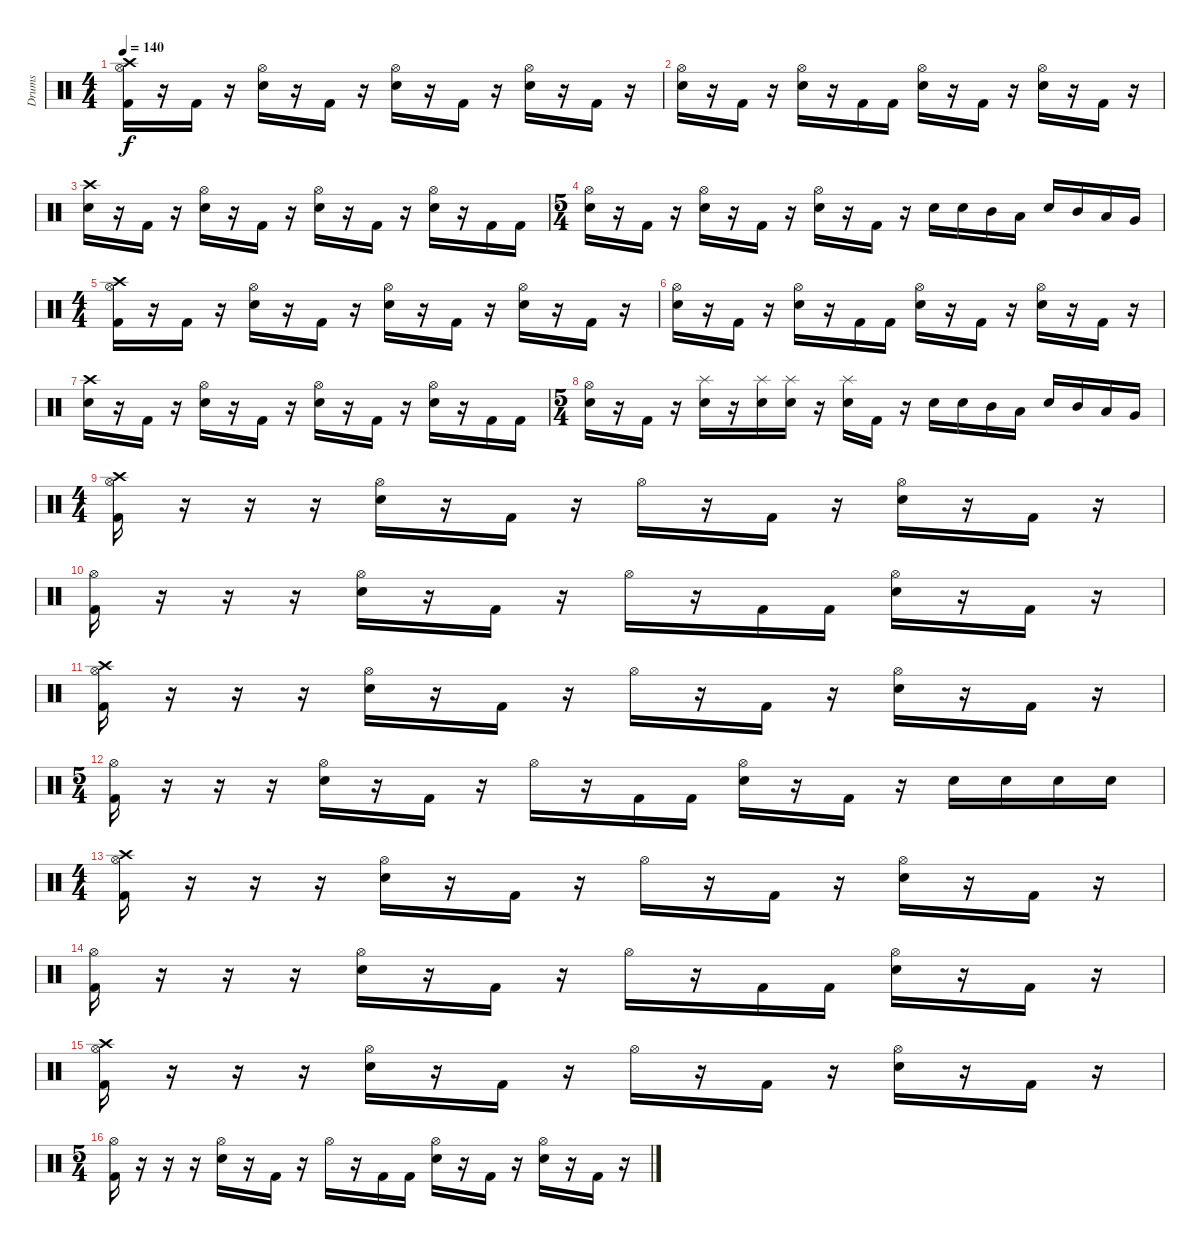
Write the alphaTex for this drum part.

\track ("Drums" "Drums") {instrument percussion}
\staff {score}
\articulation defaults
\ts (4 4)
\tempo 140
\clef neutral
\ks c
("Crash high (hit)" "Hi-Hat (open)" "Kick (hit) 2").16{dy f} r.16 "Kick (hit) 2".16 r.16 ("Hi-Hat (open)" "Electric Snare (hit)").16 r.16 "Kick (hit) 2".16 r.16 ("Hi-Hat (open)" "Electric Snare (hit)").16 r.16 "Kick (hit) 2".16 r.16 ("Hi-Hat (open)" "Electric Snare (hit)").16 r.16 "Kick (hit) 2".16 r.16 |
("Hi-Hat (open)" "Electric Snare (hit)").16 r.16 "Kick (hit) 2".16 r.16 ("Hi-Hat (open)" "Electric Snare (hit)").16 r.16 "Kick (hit) 2".16 "Kick (hit) 2".16 ("Hi-Hat (open)" "Electric Snare (hit)").16 r.16 "Kick (hit) 2".16 r.16 ("Hi-Hat (open)" "Electric Snare (hit)").16 r.16 "Kick (hit) 2".16 r.16 |
("Crash high (hit)" "Electric Snare (hit)").16 r.16 "Kick (hit) 2".16 r.16 ("Hi-Hat (open)" "Electric Snare (hit)").16 r.16 "Kick (hit) 2".16 r.16 ("Hi-Hat (open)" "Electric Snare (hit)").16 r.16 "Kick (hit) 2".16 r.16 ("Hi-Hat (open)" "Electric Snare (hit)").16 r.16 "Kick (hit) 2".16 "Kick (hit) 2".16 |
\ts (5 4)
("Hi-Hat (open)" "Electric Snare (hit)").16 r.16 "Kick (hit) 2".16 r.16 ("Hi-Hat (open)" "Electric Snare (hit)").16 r.16 "Kick (hit) 2".16 r.16 ("Hi-Hat (open)" "Electric Snare (hit)").16 r.16 "Kick (hit) 2".16 r.16 "Electric Snare (hit)".16 "Electric Snare (hit)".16 "Mid Tom (hit)".16 "Low Tom (hit)".16 "Electric Snare (hit)".16 "Mid Tom (hit)".16 "Low Tom (hit)".16 "Very Low Tom (hit)".16 |
\ts (4 4)
("Crash high (hit)" "Hi-Hat (open)" "Kick (hit) 2").16 r.16 "Kick (hit) 2".16 r.16 ("Hi-Hat (open)" "Electric Snare (hit)").16 r.16 "Kick (hit) 2".16 r.16 ("Hi-Hat (open)" "Electric Snare (hit)").16 r.16 "Kick (hit) 2".16 r.16 ("Hi-Hat (open)" "Electric Snare (hit)").16 r.16 "Kick (hit) 2".16 r.16 |
("Hi-Hat (open)" "Electric Snare (hit)").16 r.16 "Kick (hit) 2".16 r.16 ("Hi-Hat (open)" "Electric Snare (hit)").16 r.16 "Kick (hit) 2".16 "Kick (hit) 2".16 ("Hi-Hat (open)" "Electric Snare (hit)").16 r.16 "Kick (hit) 2".16 r.16 ("Hi-Hat (open)" "Electric Snare (hit)").16 r.16 "Kick (hit) 2".16 r.16 |
("Crash high (hit)" "Electric Snare (hit)").16 r.16 "Kick (hit) 2".16 r.16 ("Hi-Hat (open)" "Electric Snare (hit)").16 r.16 "Kick (hit) 2".16 r.16 ("Hi-Hat (open)" "Electric Snare (hit)").16 r.16 "Kick (hit) 2".16 r.16 ("Hi-Hat (open)" "Electric Snare (hit)").16 r.16 "Kick (hit) 2".16 "Kick (hit) 2".16 |
\ts (5 4)
("Hi-Hat (open)" "Electric Snare (hit)").16 r.16 "Kick (hit) 2".16 r.16 ("Splash (hit)" "Electric Snare (hit)").16 r.16 ("Splash (hit)" "Electric Snare (hit)").16 ("Splash (hit)" "Electric Snare (hit)").16 r.16 ("Splash (hit)" "Electric Snare (hit)").16 "Kick (hit) 2".16 r.16 "Electric Snare (hit)".16 "Electric Snare (hit)".16 "Mid Tom (hit)".16 "Low Tom (hit)".16 "Electric Snare (hit)".16 "Mid Tom (hit)".16 "Low Tom (hit)".16 "Very Low Tom (hit)".16 |
\ts (4 4)
("Crash high (hit)" "Hi-Hat (open)" "Kick (hit) 2").16 r.16 r.16 r.16 ("Hi-Hat (open)" "Electric Snare (hit)").16 r.16 "Kick (hit) 2".16 r.16 "Hi-Hat (open)".16 r.16 "Kick (hit) 2".16 r.16 ("Hi-Hat (open)" "Electric Snare (hit)").16 r.16 "Kick (hit) 2".16 r.16 |
("Hi-Hat (open)" "Kick (hit) 2").16 r.16 r.16 r.16 ("Hi-Hat (open)" "Electric Snare (hit)").16 r.16 "Kick (hit) 2".16 r.16 "Hi-Hat (open)".16 r.16 "Kick (hit) 2".16 "Kick (hit) 2".16 ("Hi-Hat (open)" "Electric Snare (hit)").16 r.16 "Kick (hit) 2".16 r.16 |
("Crash high (hit)" "Hi-Hat (open)" "Kick (hit) 2").16 r.16 r.16 r.16 ("Hi-Hat (open)" "Electric Snare (hit)").16 r.16 "Kick (hit) 2".16 r.16 "Hi-Hat (open)".16 r.16 "Kick (hit) 2".16 r.16 ("Hi-Hat (open)" "Electric Snare (hit)").16 r.16 "Kick (hit) 2".16 r.16 |
\ts (5 4)
("Hi-Hat (open)" "Kick (hit) 2").16 r.16 r.16 r.16 ("Hi-Hat (open)" "Electric Snare (hit)").16 r.16 "Kick (hit) 2".16 r.16 "Hi-Hat (open)".16 r.16 "Kick (hit) 2".16 "Kick (hit) 2".16 ("Hi-Hat (open)" "Electric Snare (hit)").16 r.16 "Kick (hit) 2".16 r.16 "Electric Snare (hit)".16 "Electric Snare (hit)".16 "Electric Snare (hit)".16 "Electric Snare (hit)".16 |
\ts (4 4)
("Crash high (hit)" "Hi-Hat (open)" "Kick (hit) 2").16 r.16 r.16 r.16 ("Hi-Hat (open)" "Electric Snare (hit)").16 r.16 "Kick (hit) 2".16 r.16 "Hi-Hat (open)".16 r.16 "Kick (hit) 2".16 r.16 ("Hi-Hat (open)" "Electric Snare (hit)").16 r.16 "Kick (hit) 2".16 r.16 |
("Hi-Hat (open)" "Kick (hit) 2").16 r.16 r.16 r.16 ("Hi-Hat (open)" "Electric Snare (hit)").16 r.16 "Kick (hit) 2".16 r.16 "Hi-Hat (open)".16 r.16 "Kick (hit) 2".16 "Kick (hit) 2".16 ("Hi-Hat (open)" "Electric Snare (hit)").16 r.16 "Kick (hit) 2".16 r.16 |
("Crash high (hit)" "Hi-Hat (open)" "Kick (hit) 2").16 r.16 r.16 r.16 ("Hi-Hat (open)" "Electric Snare (hit)").16 r.16 "Kick (hit) 2".16 r.16 "Hi-Hat (open)".16 r.16 "Kick (hit) 2".16 r.16 ("Hi-Hat (open)" "Electric Snare (hit)").16 r.16 "Kick (hit) 2".16 r.16 |
\ts (5 4)
("Hi-Hat (open)" "Kick (hit) 2").16 r.16 r.16 r.16 ("Hi-Hat (open)" "Electric Snare (hit)").16 r.16 "Kick (hit) 2".16 r.16 "Hi-Hat (open)".16 r.16 "Kick (hit) 2".16 "Kick (hit) 2".16 ("Hi-Hat (open)" "Electric Snare (hit)").16 r.16 "Kick (hit) 2".16 r.16 ("Hi-Hat (open)" "Electric Snare (hit)").16 r.16 "Kick (hit) 2".16 r.16
